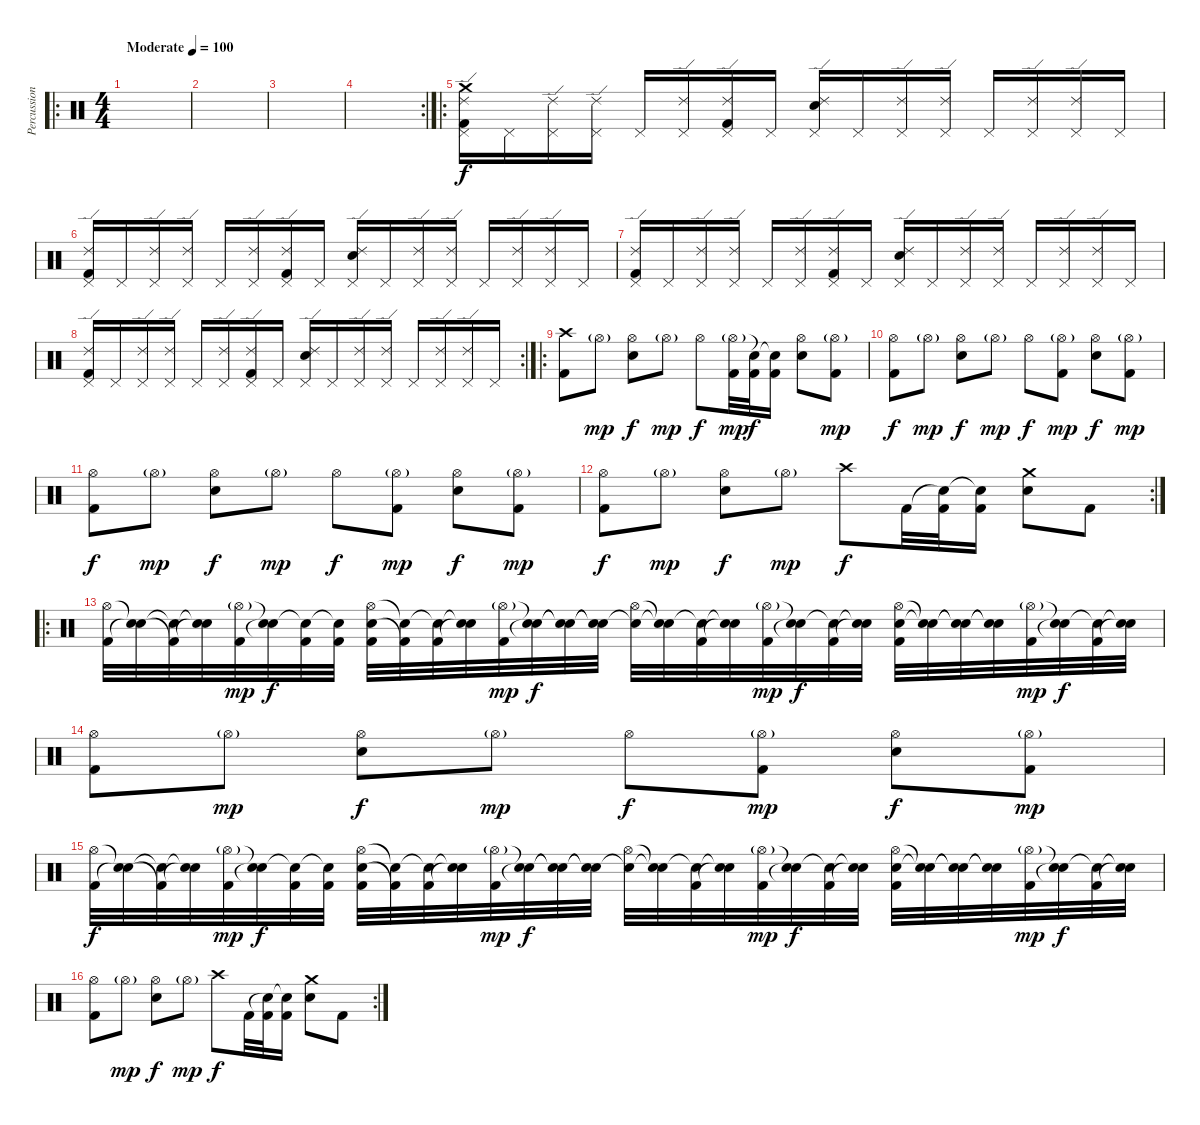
\track ("Percussion" "Percussion") {instrument percussion}
\staff {score}
\articulation defaults
\ro
\ts (4 4)
\tempo (100 "Moderate")
\clef neutral
\ks c
|
|
|
\rc 2
|
\ro
("Crash medium (hit)" "Ride (edge) 2" "Kick (hit) 2" "Pedal Hi-Hat (hit)").16 "Pedal Hi-Hat (hit)".16 ("Pedal Hi-Hat (hit)" "Ride (edge) 2").16 ("Pedal Hi-Hat (hit)" "Ride (edge) 2").16 "Pedal Hi-Hat (hit)".16 ("Pedal Hi-Hat (hit)" "Ride (edge) 2").16 ("Pedal Hi-Hat (hit)" "Ride (edge) 2" "Kick (hit) 2").16 "Pedal Hi-Hat (hit)".16 ("Electric Snare (hit)" "Ride (edge) 2" "Pedal Hi-Hat (hit)").16 "Pedal Hi-Hat (hit)".16 ("Pedal Hi-Hat (hit)" "Ride (edge) 2").16 ("Pedal Hi-Hat (hit)" "Ride (edge) 2").16 "Pedal Hi-Hat (hit)".16 ("Pedal Hi-Hat (hit)" "Ride (edge) 2").16 ("Pedal Hi-Hat (hit)" "Ride (edge) 2").16 "Pedal Hi-Hat (hit)".16 |
("Ride (edge) 2" "Kick (hit) 2" "Pedal Hi-Hat (hit)").16 "Pedal Hi-Hat (hit)".16 ("Pedal Hi-Hat (hit)" "Ride (edge) 2").16 ("Pedal Hi-Hat (hit)" "Ride (edge) 2").16 "Pedal Hi-Hat (hit)".16 ("Pedal Hi-Hat (hit)" "Ride (edge) 2").16 ("Pedal Hi-Hat (hit)" "Ride (edge) 2" "Kick (hit) 2").16 "Pedal Hi-Hat (hit)".16 ("Electric Snare (hit)" "Ride (edge) 2" "Pedal Hi-Hat (hit)").16 "Pedal Hi-Hat (hit)".16 ("Pedal Hi-Hat (hit)" "Ride (edge) 2").16 ("Pedal Hi-Hat (hit)" "Ride (edge) 2").16 "Pedal Hi-Hat (hit)".16 ("Pedal Hi-Hat (hit)" "Ride (edge) 2").16 ("Pedal Hi-Hat (hit)" "Ride (edge) 2").16 "Pedal Hi-Hat (hit)".16 |
("Ride (edge) 2" "Kick (hit) 2" "Pedal Hi-Hat (hit)").16 "Pedal Hi-Hat (hit)".16 ("Pedal Hi-Hat (hit)" "Ride (edge) 2").16 ("Pedal Hi-Hat (hit)" "Ride (edge) 2").16 "Pedal Hi-Hat (hit)".16 ("Pedal Hi-Hat (hit)" "Ride (edge) 2").16 ("Pedal Hi-Hat (hit)" "Ride (edge) 2" "Kick (hit) 2").16 "Pedal Hi-Hat (hit)".16 ("Electric Snare (hit)" "Ride (edge) 2" "Pedal Hi-Hat (hit)").16 "Pedal Hi-Hat (hit)".16 ("Pedal Hi-Hat (hit)" "Ride (edge) 2").16 ("Pedal Hi-Hat (hit)" "Ride (edge) 2").16 "Pedal Hi-Hat (hit)".16 ("Pedal Hi-Hat (hit)" "Ride (edge) 2").16 ("Pedal Hi-Hat (hit)" "Ride (edge) 2").16 "Pedal Hi-Hat (hit)".16 |
\rc 2
("Ride (edge) 2" "Kick (hit) 2" "Pedal Hi-Hat (hit)").16 "Pedal Hi-Hat (hit)".16 ("Pedal Hi-Hat (hit)" "Ride (edge) 2").16 ("Pedal Hi-Hat (hit)" "Ride (edge) 2").16 "Pedal Hi-Hat (hit)".16 ("Pedal Hi-Hat (hit)" "Ride (edge) 2").16 ("Pedal Hi-Hat (hit)" "Ride (edge) 2" "Kick (hit) 2").16 "Pedal Hi-Hat (hit)".16 ("Electric Snare (hit)" "Ride (edge) 2" "Pedal Hi-Hat (hit)").16 "Pedal Hi-Hat (hit)".16 ("Pedal Hi-Hat (hit)" "Ride (edge) 2").16 ("Pedal Hi-Hat (hit)" "Ride (edge) 2").16 "Pedal Hi-Hat (hit)".16 ("Pedal Hi-Hat (hit)" "Ride (edge) 2").16 ("Pedal Hi-Hat (hit)" "Ride (edge) 2").16 "Pedal Hi-Hat (hit)".16 |
\ro
("Crash high (hit)" "Kick (hit) 2").8{dy f} "Hi-Hat (open)"{g}.8{dy mp} ("Hi-Hat (open)" "Snare (hit) 2").8{dy f} "Hi-Hat (open)"{g}.8{dy mp} "Hi-Hat (open)".8{dy f} ("Hi-Hat (open)"{g} "Kick (hit) 2").32{dy mp} ("Snare (hit)"{t} "Kick (hit) 2").32{dy f} ("Snare (hit)"{t} "Kick (hit) 2").16 ("Hi-Hat (open)" "Snare (hit) 2").8 ("Hi-Hat (open)"{g} "Kick (hit) 2").8{dy mp} |
("Hi-Hat (open)" "Kick (hit) 2").8{dy f} "Hi-Hat (open)"{g}.8{dy mp} ("Hi-Hat (open)" "Snare (hit) 2").8{dy f} "Hi-Hat (open)"{g}.8{dy mp} "Hi-Hat (open)".8{dy f} ("Hi-Hat (open)"{g} "Kick (hit) 2").8{dy mp} ("Hi-Hat (open)" "Snare (hit) 2").8{dy f} ("Hi-Hat (open)"{g} "Kick (hit) 2").8{dy mp} |
("Hi-Hat (open)" "Kick (hit) 2").8{dy f} "Hi-Hat (open)"{g}.8{dy mp} ("Hi-Hat (open)" "Snare (hit) 2").8{dy f} "Hi-Hat (open)"{g}.8{dy mp} "Hi-Hat (open)".8{dy f} ("Hi-Hat (open)"{g} "Kick (hit) 2").8{dy mp} ("Hi-Hat (open)" "Snare (hit) 2").8{dy f} ("Hi-Hat (open)"{g} "Kick (hit) 2").8{dy mp} |
\rc 2
("Hi-Hat (open)" "Kick (hit) 2").8{dy f} "Hi-Hat (open)"{g}.8{dy mp} ("Hi-Hat (open)" "Snare (hit) 2").8{dy f} "Hi-Hat (open)"{g}.8{dy mp} "Crash high (hit)".8{dy f} "Kick (hit) 2".32 ("Snare (hit)"{t} "Kick (hit) 2").32 ("Snare (hit)"{t} "Kick (hit) 2").16 ("Crash medium (hit)" "Snare (hit) 2").8 "Kick (hit) 2".8 |
\ro
("Hi-Hat (open)" "Kick (hit) 2").32 ("Snare (hit)"{t} "Snare (hit)"{t}).32 ("Snare (hit)"{t} "Kick (hit) 2"{t}).32 ("Snare (hit)"{t} "Snare (hit)"{t}).32 ("Hi-Hat (open)"{g} "Kick (hit) 2").32{dy mp} ("Snare (hit)"{t} "Snare (hit)"{t}).32{dy f} ("Snare (hit)"{t} "Kick (hit) 2").32 ("Snare (hit)"{t} "Kick (hit) 2").32 ("Hi-Hat (open)" "Snare (hit) 2" "Kick (hit) 2").32 ("Snare (hit)"{t} "Kick (hit) 2"{t}).32 ("Snare (hit)"{t} "Kick (hit) 2").32 ("Snare (hit)"{t} "Snare (hit)"{t}).32 ("Hi-Hat (open)"{g} "Kick (hit) 2").32{dy mp} ("Snare (hit)"{t} "Snare (hit)"{t}).32{dy f} ("Snare (hit)"{t} "Snare (hit)"{t}).32 ("Snare (hit)"{t} "Snare (hit)"{t}).32 ("Hi-Hat (open)" "Snare (hit)"{t}).32 ("Snare (hit)"{t} "Snare (hit)"{t}).32 ("Snare (hit)"{t} "Kick (hit) 2").32 ("Snare (hit)"{t} "Snare (hit)"{t}).32 ("Hi-Hat (open)"{g} "Kick (hit) 2").32{dy mp} ("Snare (hit)"{t} "Snare (hit)"{t}).32{dy f} ("Snare (hit)"{t} "Kick (hit) 2").32 ("Snare (hit)"{t} "Snare (hit)"{t}).32 ("Hi-Hat (open)" "Snare (hit) 2" "Kick (hit) 2").32 ("Snare (hit)"{t} "Snare (hit)"{t}).32 ("Snare (hit)"{t} "Snare (hit)"{t}).32 ("Snare (hit)"{t} "Snare (hit)"{t}).32 ("Hi-Hat (open)"{g} "Kick (hit) 2").32{dy mp} ("Snare (hit)"{t} "Snare (hit)"{t}).32{dy f} ("Snare (hit)"{t} "Kick (hit) 2").32 ("Snare (hit)"{t} "Snare (hit)"{t}).32 |
("Hi-Hat (open)" "Kick (hit) 2").8 "Hi-Hat (open)"{g}.8{dy mp} ("Hi-Hat (open)" "Snare (hit) 2").8{dy f} "Hi-Hat (open)"{g}.8{dy mp} "Hi-Hat (open)".8{dy f} ("Hi-Hat (open)"{g} "Kick (hit) 2").8{dy mp} ("Hi-Hat (open)" "Snare (hit) 2").8{dy f} ("Hi-Hat (open)"{g} "Kick (hit) 2").8{dy mp} |
("Hi-Hat (open)" "Kick (hit) 2").32{dy f} ("Snare (hit)"{t} "Snare (hit)"{t}).32 ("Snare (hit)"{t} "Kick (hit) 2"{t}).32 ("Snare (hit)"{t} "Snare (hit)"{t}).32 ("Hi-Hat (open)"{g} "Kick (hit) 2").32{dy mp} ("Snare (hit)"{t} "Snare (hit)"{t}).32{dy f} ("Snare (hit)"{t} "Kick (hit) 2").32 ("Snare (hit)"{t} "Kick (hit) 2").32 ("Hi-Hat (open)" "Snare (hit) 2" "Kick (hit) 2").32 ("Snare (hit)"{t} "Kick (hit) 2"{t}).32 ("Snare (hit)"{t} "Kick (hit) 2").32 ("Snare (hit)"{t} "Snare (hit)"{t}).32 ("Hi-Hat (open)"{g} "Kick (hit) 2").32{dy mp} ("Snare (hit)"{t} "Snare (hit)"{t}).32{dy f} ("Snare (hit)"{t} "Snare (hit)"{t}).32 ("Snare (hit)"{t} "Snare (hit)"{t}).32 ("Hi-Hat (open)" "Snare (hit)"{t}).32 ("Snare (hit)"{t} "Snare (hit)"{t}).32 ("Snare (hit)"{t} "Kick (hit) 2").32 ("Snare (hit)"{t} "Snare (hit)"{t}).32 ("Hi-Hat (open)"{g} "Kick (hit) 2").32{dy mp} ("Snare (hit)"{t} "Snare (hit)"{t}).32{dy f} ("Snare (hit)"{t} "Kick (hit) 2").32 ("Snare (hit)"{t} "Snare (hit)"{t}).32 ("Hi-Hat (open)" "Snare (hit) 2" "Kick (hit) 2").32 ("Snare (hit)"{t} "Snare (hit)"{t}).32 ("Snare (hit)"{t} "Snare (hit)"{t}).32 ("Snare (hit)"{t} "Snare (hit)"{t}).32 ("Hi-Hat (open)"{g} "Kick (hit) 2").32{dy mp} ("Snare (hit)"{t} "Snare (hit)"{t}).32{dy f} ("Snare (hit)"{t} "Kick (hit) 2").32 ("Snare (hit)"{t} "Snare (hit)"{t}).32 |
\rc 2
("Hi-Hat (open)" "Kick (hit) 2").8 "Hi-Hat (open)"{g}.8{dy mp} ("Hi-Hat (open)" "Snare (hit) 2").8{dy f} "Hi-Hat (open)"{g}.8{dy mp} "Crash high (hit)".8{dy f} "Kick (hit) 2".32 ("Snare (hit)"{t} "Kick (hit) 2").32 ("Snare (hit)"{t} "Kick (hit) 2").16 ("Crash medium (hit)" "Snare (hit) 2").8 "Kick (hit) 2".8
